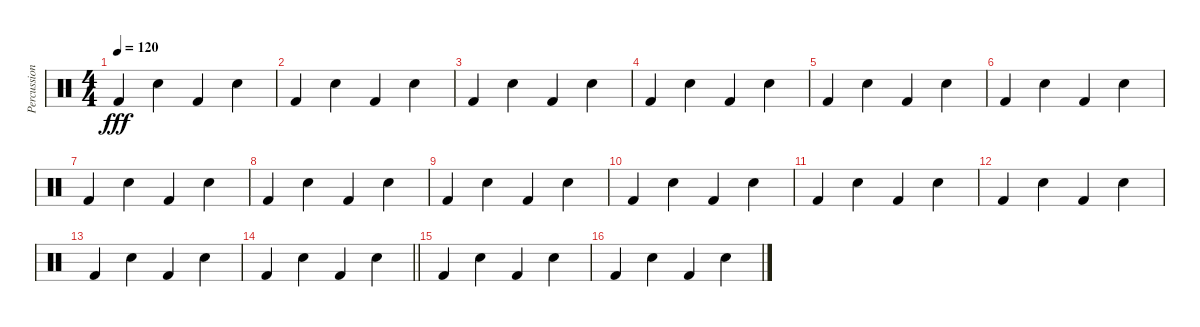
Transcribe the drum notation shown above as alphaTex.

\track ("Percussion" "Percussion") {instrument percussion}
\staff {score}
\articulation defaults
\ts (4 4)
\tempo 120
\clef neutral
\ks c "Kick (hit) 2".4{dy fff} "Electric Snare (hit)".4 "Kick (hit) 2".4 "Electric Snare (hit)".4
|
"Kick (hit) 2".4 "Electric Snare (hit)".4 "Kick (hit) 2".4 "Electric Snare (hit)".4 |
"Kick (hit) 2".4 "Electric Snare (hit)".4 "Kick (hit) 2".4 "Electric Snare (hit)".4 |
"Kick (hit) 2".4 "Electric Snare (hit)".4 "Kick (hit) 2".4 "Electric Snare (hit)".4 |
"Kick (hit) 2".4 "Electric Snare (hit)".4 "Kick (hit) 2".4 "Electric Snare (hit)".4 |
"Kick (hit) 2".4 "Electric Snare (hit)".4 "Kick (hit) 2".4 "Electric Snare (hit)".4 |
"Kick (hit) 2".4 "Electric Snare (hit)".4 "Kick (hit) 2".4 "Electric Snare (hit)".4 |
"Kick (hit) 2".4 "Electric Snare (hit)".4 "Kick (hit) 2".4 "Electric Snare (hit)".4 |
"Kick (hit) 2".4 "Electric Snare (hit)".4 "Kick (hit) 2".4 "Electric Snare (hit)".4 |
"Kick (hit) 2".4 "Electric Snare (hit)".4 "Kick (hit) 2".4 "Electric Snare (hit)".4 |
"Kick (hit) 2".4 "Electric Snare (hit)".4 "Kick (hit) 2".4 "Electric Snare (hit)".4 |
"Kick (hit) 2".4 "Electric Snare (hit)".4 "Kick (hit) 2".4 "Electric Snare (hit)".4 |
"Kick (hit) 2".4 "Electric Snare (hit)".4 "Kick (hit) 2".4 "Electric Snare (hit)".4 |
\barLineRight lightlight "Kick (hit) 2".4 "Electric Snare (hit)".4 "Kick (hit) 2".4 "Electric Snare (hit)".4
|
"Kick (hit) 2".4 "Electric Snare (hit)".4 "Kick (hit) 2".4 "Electric Snare (hit)".4 |
"Kick (hit) 2".4 "Electric Snare (hit)".4 "Kick (hit) 2".4 "Electric Snare (hit)".4
